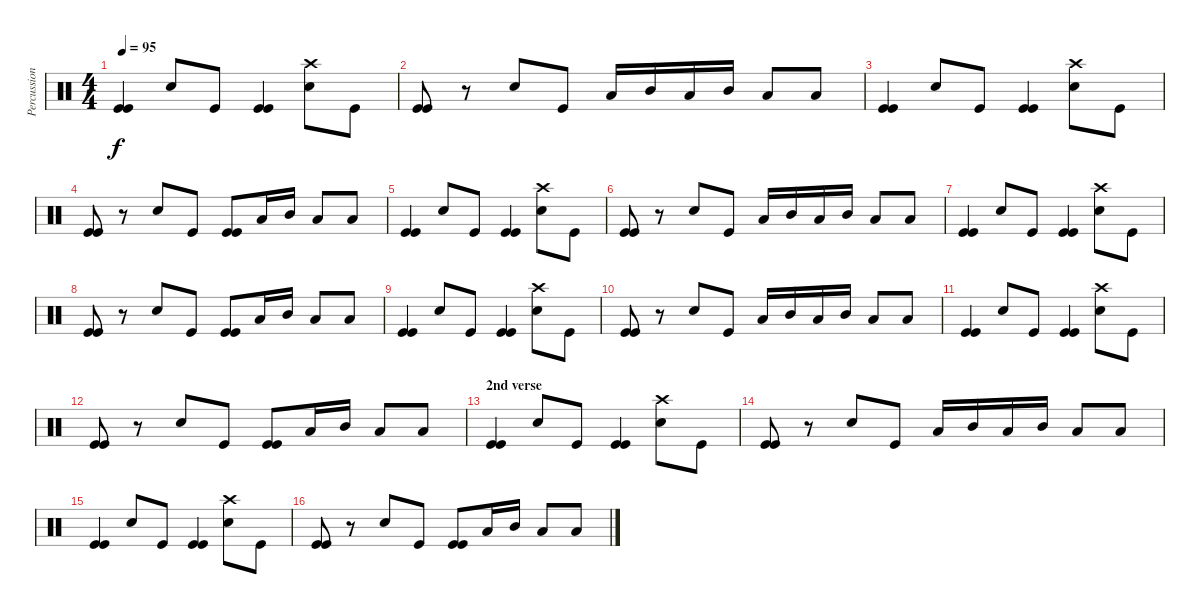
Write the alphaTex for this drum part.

\track ("Percussion" "Percussion") {instrument percussion}
\staff {score}
\articulation defaults
\ts (4 4)
\tempo 95
\clef neutral
\ks c
("Kick (hit)" "Kick (hit)").4{dy f} "Electric Snare (hit)".8 "Kick (hit)".8 ("Kick (hit)" "Kick (hit)").4 ("Electric Snare (hit)" "Crash high (hit)").8 "Kick (hit)".8 |
("Kick (hit)" "Kick (hit)").8 r.8 "Electric Snare (hit)".8 "Kick (hit)".8 "Low Tom (hit)".16 "Mid Tom (hit)".16 "Low Tom (hit)".16 "Mid Tom (hit)".16 "Low Tom (hit)".8 "Low Tom (hit)".8 |
("Kick (hit)" "Kick (hit)").4 "Electric Snare (hit)".8 "Kick (hit)".8 ("Kick (hit)" "Kick (hit)").4 ("Electric Snare (hit)" "Crash high (hit)").8 "Kick (hit)".8 |
("Kick (hit)" "Kick (hit)").8 r.8 "Electric Snare (hit)".8 "Kick (hit)".8 ("Kick (hit)" "Kick (hit)").8 "Low Tom (hit)".16 "Mid Tom (hit)".16 "Low Tom (hit)".8 "Low Tom (hit)".8 |
("Kick (hit)" "Kick (hit)").4 "Electric Snare (hit)".8 "Kick (hit)".8 ("Kick (hit)" "Kick (hit)").4 ("Electric Snare (hit)" "Crash high (hit)").8 "Kick (hit)".8 |
("Kick (hit)" "Kick (hit)").8 r.8 "Electric Snare (hit)".8 "Kick (hit)".8 "Low Tom (hit)".16 "Mid Tom (hit)".16 "Low Tom (hit)".16 "Mid Tom (hit)".16 "Low Tom (hit)".8 "Low Tom (hit)".8 |
("Kick (hit)" "Kick (hit)").4 "Electric Snare (hit)".8 "Kick (hit)".8 ("Kick (hit)" "Kick (hit)").4 ("Electric Snare (hit)" "Crash high (hit)").8 "Kick (hit)".8 |
("Kick (hit)" "Kick (hit)").8 r.8 "Electric Snare (hit)".8 "Kick (hit)".8 ("Kick (hit)" "Kick (hit)").8 "Low Tom (hit)".16 "Mid Tom (hit)".16 "Low Tom (hit)".8 "Low Tom (hit)".8 |
("Kick (hit)" "Kick (hit)").4 "Electric Snare (hit)".8 "Kick (hit)".8 ("Kick (hit)" "Kick (hit)").4 ("Electric Snare (hit)" "Crash high (hit)").8 "Kick (hit)".8 |
("Kick (hit)" "Kick (hit)").8 r.8 "Electric Snare (hit)".8 "Kick (hit)".8 "Low Tom (hit)".16 "Mid Tom (hit)".16 "Low Tom (hit)".16 "Mid Tom (hit)".16 "Low Tom (hit)".8 "Low Tom (hit)".8 |
("Kick (hit)" "Kick (hit)").4 "Electric Snare (hit)".8 "Kick (hit)".8 ("Kick (hit)" "Kick (hit)").4 ("Electric Snare (hit)" "Crash high (hit)").8 "Kick (hit)".8 |
("Kick (hit)" "Kick (hit)").8 r.8 "Electric Snare (hit)".8 "Kick (hit)".8 ("Kick (hit)" "Kick (hit)").8 "Low Tom (hit)".16 "Mid Tom (hit)".16 "Low Tom (hit)".8 "Low Tom (hit)".8 |
\section ("" "2nd verse")
("Kick (hit)" "Kick (hit)").4 "Electric Snare (hit)".8 "Kick (hit)".8 ("Kick (hit)" "Kick (hit)").4 ("Electric Snare (hit)" "Crash high (hit)").8 "Kick (hit)".8 |
("Kick (hit)" "Kick (hit)").8 r.8 "Electric Snare (hit)".8 "Kick (hit)".8 "Low Tom (hit)".16 "Mid Tom (hit)".16 "Low Tom (hit)".16 "Mid Tom (hit)".16 "Low Tom (hit)".8 "Low Tom (hit)".8 |
("Kick (hit)" "Kick (hit)").4 "Electric Snare (hit)".8 "Kick (hit)".8 ("Kick (hit)" "Kick (hit)").4 ("Electric Snare (hit)" "Crash high (hit)").8 "Kick (hit)".8 |
("Kick (hit)" "Kick (hit)").8 r.8 "Electric Snare (hit)".8 "Kick (hit)".8 ("Kick (hit)" "Kick (hit)").8 "Low Tom (hit)".16 "Mid Tom (hit)".16 "Low Tom (hit)".8 "Low Tom (hit)".8
